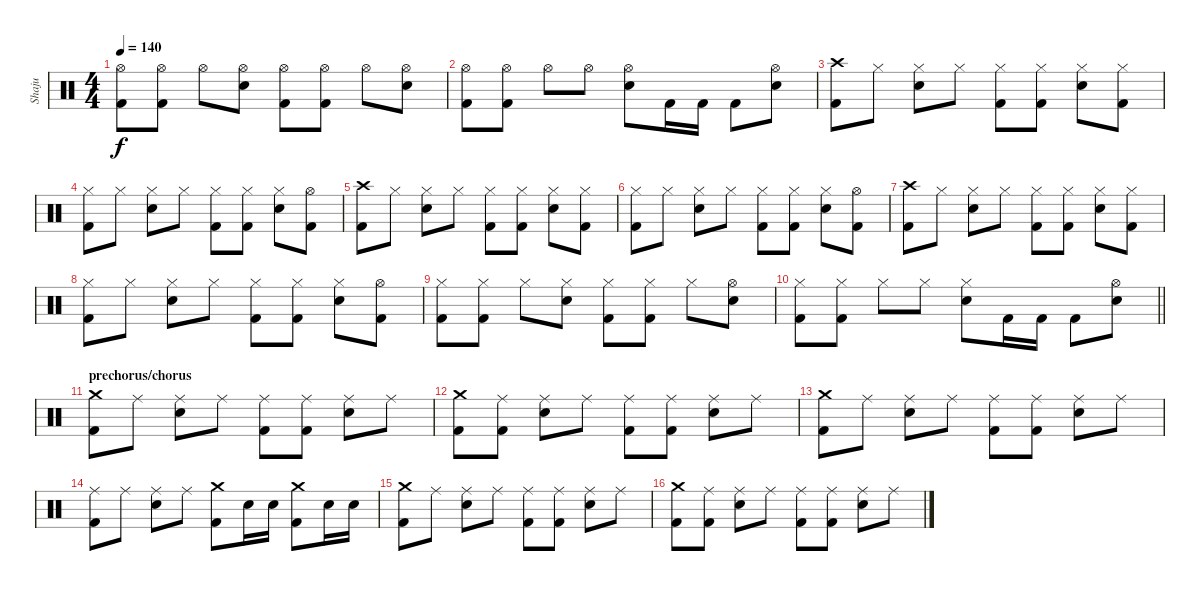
\track ("Shaju" "Shaju") {instrument percussion}
\staff {score}
\articulation defaults
\ts (4 4)
\tempo 140
\clef neutral
\ks c
("Hi-Hat (open)" "Kick (hit) 2").8{dy f} ("Hi-Hat (open)" "Kick (hit) 2").8 "Hi-Hat (open)".8 ("Hi-Hat (open)" "Electric Snare (hit)").8 ("Hi-Hat (open)" "Kick (hit) 2").8 ("Hi-Hat (open)" "Kick (hit) 2").8 "Hi-Hat (open)".8 ("Hi-Hat (open)" "Electric Snare (hit)").8 |
("Hi-Hat (open)" "Kick (hit) 2").8 ("Hi-Hat (open)" "Kick (hit) 2").8 "Hi-Hat (open)".8 "Hi-Hat (open)".8 ("Hi-Hat (open)" "Electric Snare (hit)").8 "Kick (hit) 2".16 "Kick (hit) 2".16 "Kick (hit) 2".8 ("Hi-Hat (open)" "Electric Snare (hit)").8 |
("Crash high (hit)" "Kick (hit) 2").8 "Hi-Hat (closed)".8 ("Hi-Hat (closed)" "Electric Snare (hit)").8 "Hi-Hat (closed)".8 ("Hi-Hat (closed)" "Kick (hit) 2").8 ("Hi-Hat (closed)" "Kick (hit) 2").8 ("Hi-Hat (closed)" "Electric Snare (hit)").8 ("Hi-Hat (closed)" "Kick (hit) 2").8 |
("Hi-Hat (closed)" "Kick (hit) 2").8 "Hi-Hat (closed)".8 ("Hi-Hat (closed)" "Electric Snare (hit)").8 "Hi-Hat (closed)".8 ("Hi-Hat (closed)" "Kick (hit) 2").8 ("Hi-Hat (closed)" "Kick (hit) 2").8 ("Hi-Hat (closed)" "Electric Snare (hit)").8 ("Hi-Hat (open)" "Kick (hit) 2").8 |
("Crash high (hit)" "Kick (hit) 2").8 "Hi-Hat (closed)".8 ("Hi-Hat (closed)" "Electric Snare (hit)").8 "Hi-Hat (closed)".8 ("Hi-Hat (closed)" "Kick (hit) 2").8 ("Hi-Hat (closed)" "Kick (hit) 2").8 ("Hi-Hat (closed)" "Electric Snare (hit)").8 ("Hi-Hat (closed)" "Kick (hit) 2").8 |
("Hi-Hat (closed)" "Kick (hit) 2").8 "Hi-Hat (closed)".8 ("Hi-Hat (closed)" "Electric Snare (hit)").8 "Hi-Hat (closed)".8 ("Hi-Hat (closed)" "Kick (hit) 2").8 ("Hi-Hat (closed)" "Kick (hit) 2").8 ("Hi-Hat (closed)" "Electric Snare (hit)").8 ("Hi-Hat (open)" "Kick (hit) 2").8 |
("Crash high (hit)" "Kick (hit) 2").8 "Hi-Hat (closed)".8 ("Hi-Hat (closed)" "Electric Snare (hit)").8 "Hi-Hat (closed)".8 ("Hi-Hat (closed)" "Kick (hit) 2").8 ("Hi-Hat (closed)" "Kick (hit) 2").8 ("Hi-Hat (closed)" "Electric Snare (hit)").8 ("Hi-Hat (closed)" "Kick (hit) 2").8 |
("Hi-Hat (closed)" "Kick (hit) 2").8 "Hi-Hat (closed)".8 ("Hi-Hat (closed)" "Electric Snare (hit)").8 "Hi-Hat (closed)".8 ("Hi-Hat (closed)" "Kick (hit) 2").8 ("Hi-Hat (closed)" "Kick (hit) 2").8 ("Hi-Hat (closed)" "Electric Snare (hit)").8 ("Hi-Hat (open)" "Kick (hit) 2").8 |
("Hi-Hat (closed)" "Kick (hit) 2").8 ("Hi-Hat (closed)" "Kick (hit) 2").8 "Hi-Hat (closed)".8 ("Hi-Hat (closed)" "Electric Snare (hit)").8 ("Hi-Hat (closed)" "Kick (hit) 2").8 ("Hi-Hat (closed)" "Kick (hit) 2").8 "Hi-Hat (closed)".8 ("Hi-Hat (open)" "Electric Snare (hit)").8 |
\barLineRight lightlight
("Hi-Hat (closed)" "Kick (hit) 2").8 ("Hi-Hat (closed)" "Kick (hit) 2").8 "Hi-Hat (closed)".8 "Hi-Hat (closed)".8 ("Hi-Hat (closed)" "Electric Snare (hit)").8 "Kick (hit) 2".16 "Kick (hit) 2".16 "Kick (hit) 2".8 ("Hi-Hat (open)" "Electric Snare (hit)").8 |
\section ("" "prechorus/chorus")
("Crash medium (hit)" "Kick (hit) 2").8 "Ride (middle)".8 ("Ride (middle)" "Electric Snare (hit)").8 "Ride (middle)".8 ("Ride (middle)" "Kick (hit) 2").8 ("Ride (middle)" "Kick (hit) 2").8 ("Ride (middle)" "Electric Snare (hit)").8 "Ride (middle)".8 |
("Crash medium (hit)" "Kick (hit) 2").8 ("Ride (middle)" "Kick (hit) 2").8 ("Ride (middle)" "Electric Snare (hit)").8 "Ride (middle)".8 ("Ride (middle)" "Kick (hit) 2").8 ("Ride (middle)" "Kick (hit) 2").8 ("Ride (middle)" "Electric Snare (hit)").8 "Ride (middle)".8 |
("Crash medium (hit)" "Kick (hit) 2").8 "Ride (middle)".8 ("Ride (middle)" "Electric Snare (hit)").8 "Ride (middle)".8 ("Ride (middle)" "Kick (hit) 2").8 ("Ride (middle)" "Kick (hit) 2").8 ("Ride (middle)" "Electric Snare (hit)").8 "Ride (middle)".8 |
("Ride (middle)" "Kick (hit) 2").8 "Ride (middle)".8 ("Ride (middle)" "Electric Snare (hit)").8 "Ride (middle)".8 ("Crash medium (hit)" "Kick (hit) 2").8 "Electric Snare (hit)".16 "Electric Snare (hit)".16 ("Crash medium (hit)" "Kick (hit) 2").8 "Electric Snare (hit)".16 "Electric Snare (hit)".16 |
("Crash medium (hit)" "Kick (hit) 2").8 "Ride (middle)".8 ("Ride (middle)" "Electric Snare (hit)").8 "Ride (middle)".8 ("Ride (middle)" "Kick (hit) 2").8 ("Ride (middle)" "Kick (hit) 2").8 ("Ride (middle)" "Electric Snare (hit)").8 "Ride (middle)".8 |
("Crash medium (hit)" "Kick (hit) 2").8 ("Ride (middle)" "Kick (hit) 2").8 ("Ride (middle)" "Electric Snare (hit)").8 "Ride (middle)".8 ("Ride (middle)" "Kick (hit) 2").8 ("Ride (middle)" "Kick (hit) 2").8 ("Ride (middle)" "Electric Snare (hit)").8 "Ride (middle)".8
